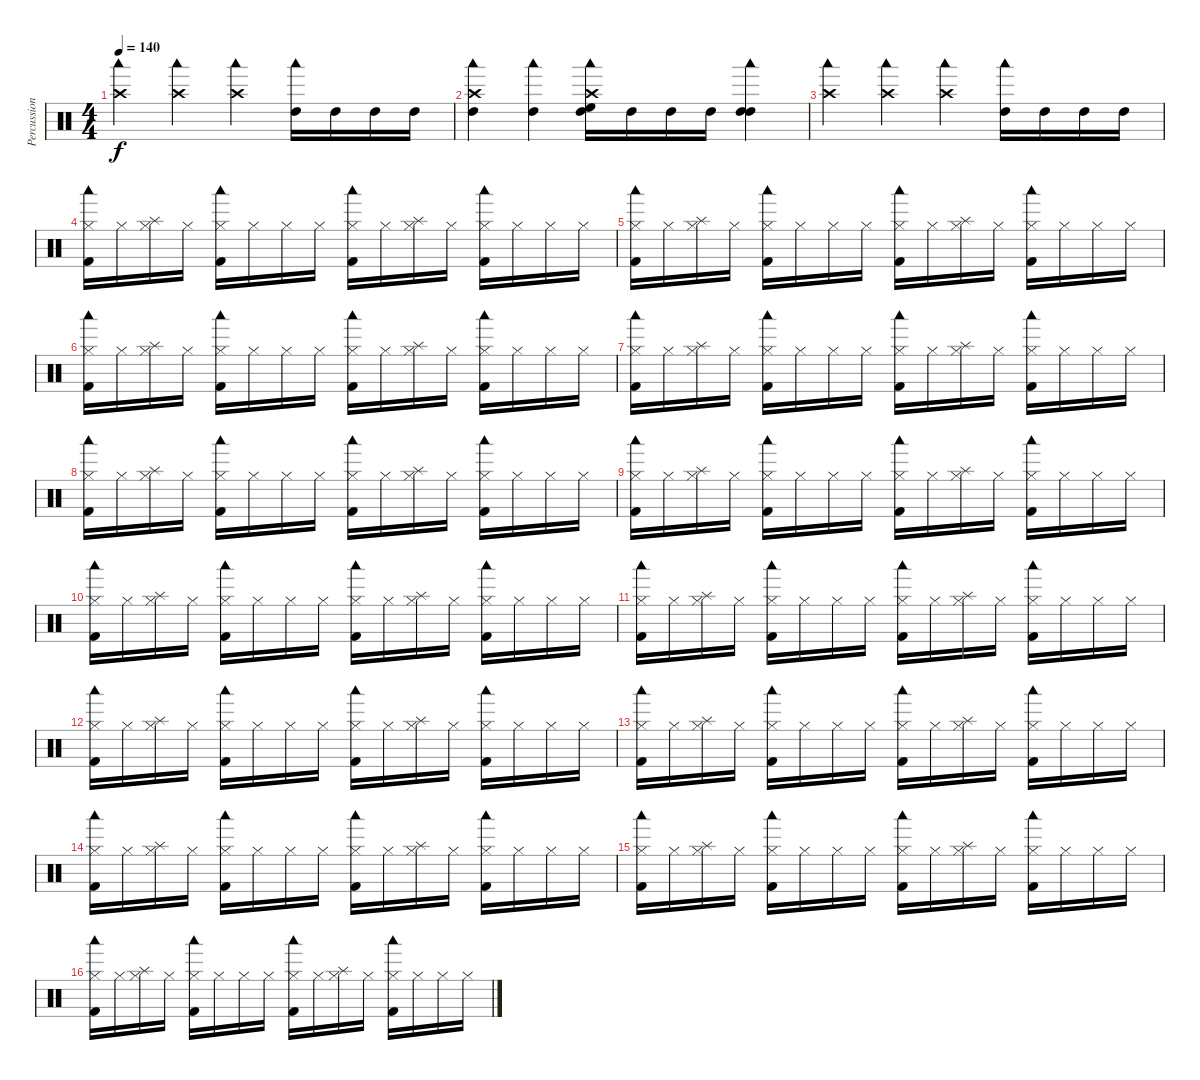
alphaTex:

\track ("Percussion" "Percussion") {instrument percussion}
\staff {score}
\articulation defaults
\ts (4 4)
\tempo 140
\clef neutral
\ks c
("Crash high (hit)" "Woodblock low (hit)").4{dy f} ("Crash high (hit)" "Woodblock low (hit)").4 ("Crash high (hit)" "Woodblock low (hit)").4 ("Woodblock low (hit)" "High Tom (hit)").16 "High Tom (hit)".16 "High Tom (hit)".16 "High Tom (hit)".16 |
("Crash high (hit)" "Woodblock low (hit)" "High Tom (hit)").4 ("Woodblock low (hit)" "High Tom (hit)").4 ("Crash high (hit)" "Woodblock low (hit)" "High Floor Tom (hit)" "High Tom (hit)").16 "High Tom (hit)".16 "High Tom (hit)".16 "High Tom (hit)".16 ("Woodblock low (hit)" "High Tom (hit)" "High Tom (hit)").4 |
("Crash high (hit)" "Woodblock low (hit)").4 ("Crash high (hit)" "Woodblock low (hit)").4 ("Crash high (hit)" "Woodblock low (hit)").4 ("Woodblock low (hit)" "High Tom (hit)").16 "High Tom (hit)".16 "High Tom (hit)".16 "High Tom (hit)".16 |
("Woodblock low (hit)" "Hi-Hat (closed)" "Kick (hit) 2").16 "Hi-Hat (closed)".16 ("Splash (hit)" "Hi-Hat (closed)").16 "Hi-Hat (closed)".16 ("Woodblock low (hit)" "Hi-Hat (closed)" "Kick (hit) 2").16 "Hi-Hat (closed)".16 "Hi-Hat (closed)".16 "Hi-Hat (closed)".16 ("Woodblock low (hit)" "Hi-Hat (closed)" "Kick (hit) 2").16 "Hi-Hat (closed)".16 ("Splash (hit)" "Hi-Hat (closed)").16 "Hi-Hat (closed)".16 ("Woodblock low (hit)" "Hi-Hat (closed)" "Kick (hit) 2").16 "Hi-Hat (closed)".16 "Hi-Hat (closed)".16 "Hi-Hat (closed)".16 |
("Woodblock low (hit)" "Hi-Hat (closed)" "Kick (hit) 2").16 "Hi-Hat (closed)".16 ("Splash (hit)" "Hi-Hat (closed)").16 "Hi-Hat (closed)".16 ("Woodblock low (hit)" "Hi-Hat (closed)" "Kick (hit) 2").16 "Hi-Hat (closed)".16 "Hi-Hat (closed)".16 "Hi-Hat (closed)".16 ("Woodblock low (hit)" "Hi-Hat (closed)" "Kick (hit) 2").16 "Hi-Hat (closed)".16 ("Splash (hit)" "Hi-Hat (closed)").16 "Hi-Hat (closed)".16 ("Woodblock low (hit)" "Hi-Hat (closed)" "Kick (hit) 2").16 "Hi-Hat (closed)".16 "Hi-Hat (closed)".16 "Hi-Hat (closed)".16 |
("Woodblock low (hit)" "Hi-Hat (closed)" "Kick (hit) 2").16 "Hi-Hat (closed)".16 ("Splash (hit)" "Hi-Hat (closed)").16 "Hi-Hat (closed)".16 ("Woodblock low (hit)" "Hi-Hat (closed)" "Kick (hit) 2").16 "Hi-Hat (closed)".16 "Hi-Hat (closed)".16 "Hi-Hat (closed)".16 ("Woodblock low (hit)" "Hi-Hat (closed)" "Kick (hit) 2").16 "Hi-Hat (closed)".16 ("Splash (hit)" "Hi-Hat (closed)").16 "Hi-Hat (closed)".16 ("Woodblock low (hit)" "Hi-Hat (closed)" "Kick (hit) 2").16 "Hi-Hat (closed)".16 "Hi-Hat (closed)".16 "Hi-Hat (closed)".16 |
("Woodblock low (hit)" "Hi-Hat (closed)" "Kick (hit) 2").16 "Hi-Hat (closed)".16 ("Splash (hit)" "Hi-Hat (closed)").16 "Hi-Hat (closed)".16 ("Woodblock low (hit)" "Hi-Hat (closed)" "Kick (hit) 2").16 "Hi-Hat (closed)".16 "Hi-Hat (closed)".16 "Hi-Hat (closed)".16 ("Woodblock low (hit)" "Hi-Hat (closed)" "Kick (hit) 2").16 "Hi-Hat (closed)".16 ("Splash (hit)" "Hi-Hat (closed)").16 "Hi-Hat (closed)".16 ("Woodblock low (hit)" "Hi-Hat (closed)" "Kick (hit) 2").16 "Hi-Hat (closed)".16 "Hi-Hat (closed)".16 "Hi-Hat (closed)".16 |
("Woodblock low (hit)" "Hi-Hat (closed)" "Kick (hit) 2").16 "Hi-Hat (closed)".16 ("Splash (hit)" "Hi-Hat (closed)").16 "Hi-Hat (closed)".16 ("Woodblock low (hit)" "Hi-Hat (closed)" "Kick (hit) 2").16 "Hi-Hat (closed)".16 "Hi-Hat (closed)".16 "Hi-Hat (closed)".16 ("Woodblock low (hit)" "Hi-Hat (closed)" "Kick (hit) 2").16 "Hi-Hat (closed)".16 ("Splash (hit)" "Hi-Hat (closed)").16 "Hi-Hat (closed)".16 ("Woodblock low (hit)" "Hi-Hat (closed)" "Kick (hit) 2").16 "Hi-Hat (closed)".16 "Hi-Hat (closed)".16 "Hi-Hat (closed)".16 |
("Woodblock low (hit)" "Hi-Hat (closed)" "Kick (hit) 2").16 "Hi-Hat (closed)".16 ("Splash (hit)" "Hi-Hat (closed)").16 "Hi-Hat (closed)".16 ("Woodblock low (hit)" "Hi-Hat (closed)" "Kick (hit) 2").16 "Hi-Hat (closed)".16 "Hi-Hat (closed)".16 "Hi-Hat (closed)".16 ("Woodblock low (hit)" "Hi-Hat (closed)" "Kick (hit) 2").16 "Hi-Hat (closed)".16 ("Splash (hit)" "Hi-Hat (closed)").16 "Hi-Hat (closed)".16 ("Woodblock low (hit)" "Hi-Hat (closed)" "Kick (hit) 2").16 "Hi-Hat (closed)".16 "Hi-Hat (closed)".16 "Hi-Hat (closed)".16 |
("Woodblock low (hit)" "Hi-Hat (closed)" "Kick (hit) 2").16 "Hi-Hat (closed)".16 ("Splash (hit)" "Hi-Hat (closed)").16 "Hi-Hat (closed)".16 ("Woodblock low (hit)" "Hi-Hat (closed)" "Kick (hit) 2").16 "Hi-Hat (closed)".16 "Hi-Hat (closed)".16 "Hi-Hat (closed)".16 ("Woodblock low (hit)" "Hi-Hat (closed)" "Kick (hit) 2").16 "Hi-Hat (closed)".16 ("Splash (hit)" "Hi-Hat (closed)").16 "Hi-Hat (closed)".16 ("Woodblock low (hit)" "Hi-Hat (closed)" "Kick (hit) 2").16 "Hi-Hat (closed)".16 "Hi-Hat (closed)".16 "Hi-Hat (closed)".16 |
("Woodblock low (hit)" "Hi-Hat (closed)" "Kick (hit) 2").16 "Hi-Hat (closed)".16 ("Splash (hit)" "Hi-Hat (closed)").16 "Hi-Hat (closed)".16 ("Woodblock low (hit)" "Hi-Hat (closed)" "Kick (hit) 2").16 "Hi-Hat (closed)".16 "Hi-Hat (closed)".16 "Hi-Hat (closed)".16 ("Woodblock low (hit)" "Hi-Hat (closed)" "Kick (hit) 2").16 "Hi-Hat (closed)".16 ("Splash (hit)" "Hi-Hat (closed)").16 "Hi-Hat (closed)".16 ("Woodblock low (hit)" "Hi-Hat (closed)" "Kick (hit) 2").16 "Hi-Hat (closed)".16 "Hi-Hat (closed)".16 "Hi-Hat (closed)".16 |
("Woodblock low (hit)" "Hi-Hat (closed)" "Kick (hit) 2").16 "Hi-Hat (closed)".16 ("Splash (hit)" "Hi-Hat (closed)").16 "Hi-Hat (closed)".16 ("Woodblock low (hit)" "Hi-Hat (closed)" "Kick (hit) 2").16 "Hi-Hat (closed)".16 "Hi-Hat (closed)".16 "Hi-Hat (closed)".16 ("Woodblock low (hit)" "Hi-Hat (closed)" "Kick (hit) 2").16 "Hi-Hat (closed)".16 ("Splash (hit)" "Hi-Hat (closed)").16 "Hi-Hat (closed)".16 ("Woodblock low (hit)" "Hi-Hat (closed)" "Kick (hit) 2").16 "Hi-Hat (closed)".16 "Hi-Hat (closed)".16 "Hi-Hat (closed)".16 |
("Woodblock low (hit)" "Hi-Hat (closed)" "Kick (hit) 2").16 "Hi-Hat (closed)".16 ("Splash (hit)" "Hi-Hat (closed)").16 "Hi-Hat (closed)".16 ("Woodblock low (hit)" "Hi-Hat (closed)" "Kick (hit) 2").16 "Hi-Hat (closed)".16 "Hi-Hat (closed)".16 "Hi-Hat (closed)".16 ("Woodblock low (hit)" "Hi-Hat (closed)" "Kick (hit) 2").16 "Hi-Hat (closed)".16 ("Splash (hit)" "Hi-Hat (closed)").16 "Hi-Hat (closed)".16 ("Woodblock low (hit)" "Hi-Hat (closed)" "Kick (hit) 2").16 "Hi-Hat (closed)".16 "Hi-Hat (closed)".16 "Hi-Hat (closed)".16 |
("Woodblock low (hit)" "Hi-Hat (closed)" "Kick (hit) 2").16 "Hi-Hat (closed)".16 ("Splash (hit)" "Hi-Hat (closed)").16 "Hi-Hat (closed)".16 ("Woodblock low (hit)" "Hi-Hat (closed)" "Kick (hit) 2").16 "Hi-Hat (closed)".16 "Hi-Hat (closed)".16 "Hi-Hat (closed)".16 ("Woodblock low (hit)" "Hi-Hat (closed)" "Kick (hit) 2").16 "Hi-Hat (closed)".16 ("Splash (hit)" "Hi-Hat (closed)").16 "Hi-Hat (closed)".16 ("Woodblock low (hit)" "Hi-Hat (closed)" "Kick (hit) 2").16 "Hi-Hat (closed)".16 "Hi-Hat (closed)".16 "Hi-Hat (closed)".16 |
("Woodblock low (hit)" "Hi-Hat (closed)" "Kick (hit) 2").16 "Hi-Hat (closed)".16 ("Splash (hit)" "Hi-Hat (closed)").16 "Hi-Hat (closed)".16 ("Woodblock low (hit)" "Hi-Hat (closed)" "Kick (hit) 2").16 "Hi-Hat (closed)".16 "Hi-Hat (closed)".16 "Hi-Hat (closed)".16 ("Woodblock low (hit)" "Hi-Hat (closed)" "Kick (hit) 2").16 "Hi-Hat (closed)".16 ("Splash (hit)" "Hi-Hat (closed)").16 "Hi-Hat (closed)".16 ("Woodblock low (hit)" "Hi-Hat (closed)" "Kick (hit) 2").16 "Hi-Hat (closed)".16 "Hi-Hat (closed)".16 "Hi-Hat (closed)".16 |
("Woodblock low (hit)" "Hi-Hat (closed)" "Kick (hit) 2").16 "Hi-Hat (closed)".16 ("Splash (hit)" "Hi-Hat (closed)").16 "Hi-Hat (closed)".16 ("Woodblock low (hit)" "Hi-Hat (closed)" "Kick (hit) 2").16 "Hi-Hat (closed)".16 "Hi-Hat (closed)".16 "Hi-Hat (closed)".16 ("Woodblock low (hit)" "Hi-Hat (closed)" "Kick (hit) 2").16 "Hi-Hat (closed)".16 ("Splash (hit)" "Hi-Hat (closed)").16 "Hi-Hat (closed)".16 ("Woodblock low (hit)" "Hi-Hat (closed)" "Kick (hit) 2").16 "Hi-Hat (closed)".16 "Hi-Hat (closed)".16 "Hi-Hat (closed)".16
